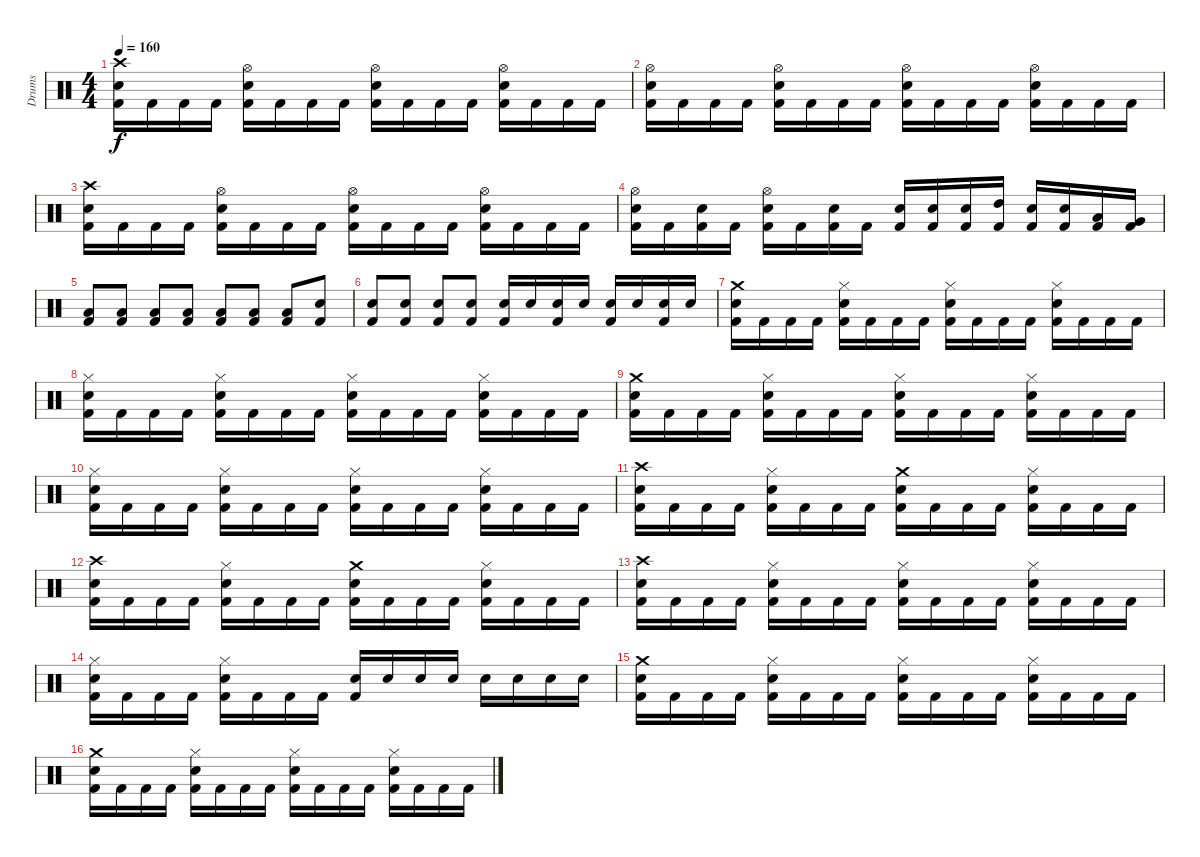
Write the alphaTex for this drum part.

\track ("Drums" "Drums") {instrument percussion}
\staff {score}
\articulation defaults
\ts (4 4)
\tempo 160
\clef neutral
\ks c
("Crash high (hit)" "Snare (hit) 2" "Kick (hit) 2").16{dy f} "Kick (hit) 2".16 "Kick (hit) 2".16 "Kick (hit) 2".16 ("Hi-Hat (open)" "Snare (hit) 2" "Kick (hit) 2").16 "Kick (hit) 2".16 "Kick (hit) 2".16 "Kick (hit) 2".16 ("Hi-Hat (open)" "Snare (hit) 2" "Kick (hit) 2").16 "Kick (hit) 2".16 "Kick (hit) 2".16 "Kick (hit) 2".16 ("Hi-Hat (open)" "Snare (hit) 2" "Kick (hit) 2").16 "Kick (hit) 2".16 "Kick (hit) 2".16 "Kick (hit) 2".16 |
("Hi-Hat (open)" "Snare (hit) 2" "Kick (hit) 2").16 "Kick (hit) 2".16 "Kick (hit) 2".16 "Kick (hit) 2".16 ("Hi-Hat (open)" "Snare (hit) 2" "Kick (hit) 2").16 "Kick (hit) 2".16 "Kick (hit) 2".16 "Kick (hit) 2".16 ("Hi-Hat (open)" "Snare (hit) 2" "Kick (hit) 2").16 "Kick (hit) 2".16 "Kick (hit) 2".16 "Kick (hit) 2".16 ("Hi-Hat (open)" "Snare (hit) 2" "Kick (hit) 2").16 "Kick (hit) 2".16 "Kick (hit) 2".16 "Kick (hit) 2".16 |
("Crash high (hit)" "Snare (hit) 2" "Kick (hit) 2").16 "Kick (hit) 2".16 "Kick (hit) 2".16 "Kick (hit) 2".16 ("Hi-Hat (open)" "Snare (hit) 2" "Kick (hit) 2").16 "Kick (hit) 2".16 "Kick (hit) 2".16 "Kick (hit) 2".16 ("Hi-Hat (open)" "Snare (hit) 2" "Kick (hit) 2").16 "Kick (hit) 2".16 "Kick (hit) 2".16 "Kick (hit) 2".16 ("Hi-Hat (open)" "Snare (hit) 2" "Kick (hit) 2").16 "Kick (hit) 2".16 "Kick (hit) 2".16 "Kick (hit) 2".16 |
("Hi-Hat (open)" "Snare (hit) 2" "Kick (hit) 2").16 "Kick (hit) 2".16 ("Snare (hit) 2" "Kick (hit) 2").16 "Kick (hit) 2".16 ("Hi-Hat (open)" "Snare (hit) 2" "Kick (hit) 2").16 "Kick (hit) 2".16 ("Snare (hit) 2" "Kick (hit) 2").16 "Kick (hit) 2".16 ("Snare (hit) 2" "Kick (hit) 2").16 ("Snare (hit) 2" "Kick (hit) 2").16 ("Snare (hit) 2" "Kick (hit) 2").16 ("High Tom (hit)" "Kick (hit) 2").16 ("Snare (hit) 2" "Kick (hit) 2").16 ("Snare (hit) 2" "Kick (hit) 2").16 ("Low Tom (hit)" "Kick (hit) 2").16 ("Very Low Tom (hit)" "Kick (hit) 2").16 |
("Low Tom (hit)" "Kick (hit) 2").8 ("Low Tom (hit)" "Kick (hit) 2").8 ("Low Tom (hit)" "Kick (hit) 2").8 ("Low Tom (hit)" "Kick (hit) 2").8 ("Low Tom (hit)" "Kick (hit) 2").8 ("Low Tom (hit)" "Kick (hit) 2").8 ("Low Tom (hit)" "Kick (hit) 2").8 ("Snare (hit) 2" "Kick (hit) 2").8 |
("Snare (hit) 2" "Kick (hit) 2").8 ("Snare (hit) 2" "Kick (hit) 2").8 ("Snare (hit) 2" "Kick (hit) 2").8 ("Snare (hit) 2" "Kick (hit) 2").8 ("Snare (hit) 2" "Kick (hit) 2").16 "Snare (hit) 2".16 ("Snare (hit) 2" "Kick (hit) 2").16 "Snare (hit) 2".16 ("Snare (hit) 2" "Kick (hit) 2").16 "Snare (hit) 2".16 ("Snare (hit) 2" "Kick (hit) 2").16 "Snare (hit) 2".16 |
("Crash medium (hit)" "Snare (hit) 2" "Kick (hit) 2").16 "Kick (hit) 2".16 "Kick (hit) 2".16 "Kick (hit) 2".16 ("Hi-Hat (closed)" "Snare (hit) 2" "Kick (hit) 2").16 "Kick (hit) 2".16 "Kick (hit) 2".16 "Kick (hit) 2".16 ("Hi-Hat (closed)" "Snare (hit) 2" "Kick (hit) 2").16 "Kick (hit) 2".16 "Kick (hit) 2".16 "Kick (hit) 2".16 ("Hi-Hat (closed)" "Snare (hit) 2" "Kick (hit) 2").16 "Kick (hit) 2".16 "Kick (hit) 2".16 "Kick (hit) 2".16 |
("Hi-Hat (closed)" "Snare (hit) 2" "Kick (hit) 2").16 "Kick (hit) 2".16 "Kick (hit) 2".16 "Kick (hit) 2".16 ("Hi-Hat (closed)" "Snare (hit) 2" "Kick (hit) 2").16 "Kick (hit) 2".16 "Kick (hit) 2".16 "Kick (hit) 2".16 ("Hi-Hat (closed)" "Snare (hit) 2" "Kick (hit) 2").16 "Kick (hit) 2".16 "Kick (hit) 2".16 "Kick (hit) 2".16 ("Hi-Hat (closed)" "Snare (hit) 2" "Kick (hit) 2").16 "Kick (hit) 2".16 "Kick (hit) 2".16 "Kick (hit) 2".16 |
("Crash medium (hit)" "Snare (hit) 2" "Kick (hit) 2").16 "Kick (hit) 2".16 "Kick (hit) 2".16 "Kick (hit) 2".16 ("Hi-Hat (closed)" "Snare (hit) 2" "Kick (hit) 2").16 "Kick (hit) 2".16 "Kick (hit) 2".16 "Kick (hit) 2".16 ("Hi-Hat (closed)" "Snare (hit) 2" "Kick (hit) 2").16 "Kick (hit) 2".16 "Kick (hit) 2".16 "Kick (hit) 2".16 ("Hi-Hat (closed)" "Snare (hit) 2" "Kick (hit) 2").16 "Kick (hit) 2".16 "Kick (hit) 2".16 "Kick (hit) 2".16 |
("Hi-Hat (closed)" "Snare (hit) 2" "Kick (hit) 2").16 "Kick (hit) 2".16 "Kick (hit) 2".16 "Kick (hit) 2".16 ("Hi-Hat (closed)" "Snare (hit) 2" "Kick (hit) 2").16 "Kick (hit) 2".16 "Kick (hit) 2".16 "Kick (hit) 2".16 ("Hi-Hat (closed)" "Snare (hit) 2" "Kick (hit) 2").16 "Kick (hit) 2".16 "Kick (hit) 2".16 "Kick (hit) 2".16 ("Hi-Hat (closed)" "Snare (hit) 2" "Kick (hit) 2").16 "Kick (hit) 2".16 "Kick (hit) 2".16 "Kick (hit) 2".16 |
("Crash high (hit)" "Snare (hit) 2" "Kick (hit) 2").16 "Kick (hit) 2".16 "Kick (hit) 2".16 "Kick (hit) 2".16 ("Hi-Hat (closed)" "Snare (hit) 2" "Kick (hit) 2").16 "Kick (hit) 2".16 "Kick (hit) 2".16 "Kick (hit) 2".16 ("Crash medium (hit)" "Snare (hit) 2" "Kick (hit) 2").16 "Kick (hit) 2".16 "Kick (hit) 2".16 "Kick (hit) 2".16 ("Hi-Hat (closed)" "Snare (hit) 2" "Kick (hit) 2").16 "Kick (hit) 2".16 "Kick (hit) 2".16 "Kick (hit) 2".16 |
("Crash high (hit)" "Snare (hit) 2" "Kick (hit) 2").16 "Kick (hit) 2".16 "Kick (hit) 2".16 "Kick (hit) 2".16 ("Hi-Hat (closed)" "Snare (hit) 2" "Kick (hit) 2").16 "Kick (hit) 2".16 "Kick (hit) 2".16 "Kick (hit) 2".16 ("Crash medium (hit)" "Snare (hit) 2" "Kick (hit) 2").16 "Kick (hit) 2".16 "Kick (hit) 2".16 "Kick (hit) 2".16 ("Hi-Hat (closed)" "Snare (hit) 2" "Kick (hit) 2").16 "Kick (hit) 2".16 "Kick (hit) 2".16 "Kick (hit) 2".16 |
("Crash high (hit)" "Snare (hit) 2" "Kick (hit) 2").16 "Kick (hit) 2".16 "Kick (hit) 2".16 "Kick (hit) 2".16 ("Hi-Hat (closed)" "Snare (hit) 2" "Kick (hit) 2").16 "Kick (hit) 2".16 "Kick (hit) 2".16 "Kick (hit) 2".16 ("Hi-Hat (closed)" "Snare (hit) 2" "Kick (hit) 2").16 "Kick (hit) 2".16 "Kick (hit) 2".16 "Kick (hit) 2".16 ("Hi-Hat (closed)" "Snare (hit) 2" "Kick (hit) 2").16 "Kick (hit) 2".16 "Kick (hit) 2".16 "Kick (hit) 2".16 |
("Hi-Hat (closed)" "Snare (hit) 2" "Kick (hit) 2").16 "Kick (hit) 2".16 "Kick (hit) 2".16 "Kick (hit) 2".16 ("Hi-Hat (closed)" "Snare (hit) 2" "Kick (hit) 2").16 "Kick (hit) 2".16 "Kick (hit) 2".16 "Kick (hit) 2".16 ("Snare (hit) 2" "Kick (hit) 2").16 "Snare (hit) 2".16 "Snare (hit) 2".16 "Snare (hit) 2".16 "Snare (hit) 2".16 "Snare (hit) 2".16 "Snare (hit) 2".16 "Snare (hit) 2".16 |
("Crash medium (hit)" "Snare (hit) 2" "Kick (hit) 2").16 "Kick (hit) 2".16 "Kick (hit) 2".16 "Kick (hit) 2".16 ("Hi-Hat (closed)" "Snare (hit) 2" "Kick (hit) 2").16 "Kick (hit) 2".16 "Kick (hit) 2".16 "Kick (hit) 2".16 ("Hi-Hat (closed)" "Snare (hit) 2" "Kick (hit) 2").16 "Kick (hit) 2".16 "Kick (hit) 2".16 "Kick (hit) 2".16 ("Hi-Hat (closed)" "Snare (hit) 2" "Kick (hit) 2").16 "Kick (hit) 2".16 "Kick (hit) 2".16 "Kick (hit) 2".16 |
("Crash medium (hit)" "Snare (hit) 2" "Kick (hit) 2").16 "Kick (hit) 2".16 "Kick (hit) 2".16 "Kick (hit) 2".16 ("Hi-Hat (closed)" "Snare (hit) 2" "Kick (hit) 2").16 "Kick (hit) 2".16 "Kick (hit) 2".16 "Kick (hit) 2".16 ("Hi-Hat (closed)" "Snare (hit) 2" "Kick (hit) 2").16 "Kick (hit) 2".16 "Kick (hit) 2".16 "Kick (hit) 2".16 ("Hi-Hat (closed)" "Snare (hit) 2" "Kick (hit) 2").16 "Kick (hit) 2".16 "Kick (hit) 2".16 "Kick (hit) 2".16
